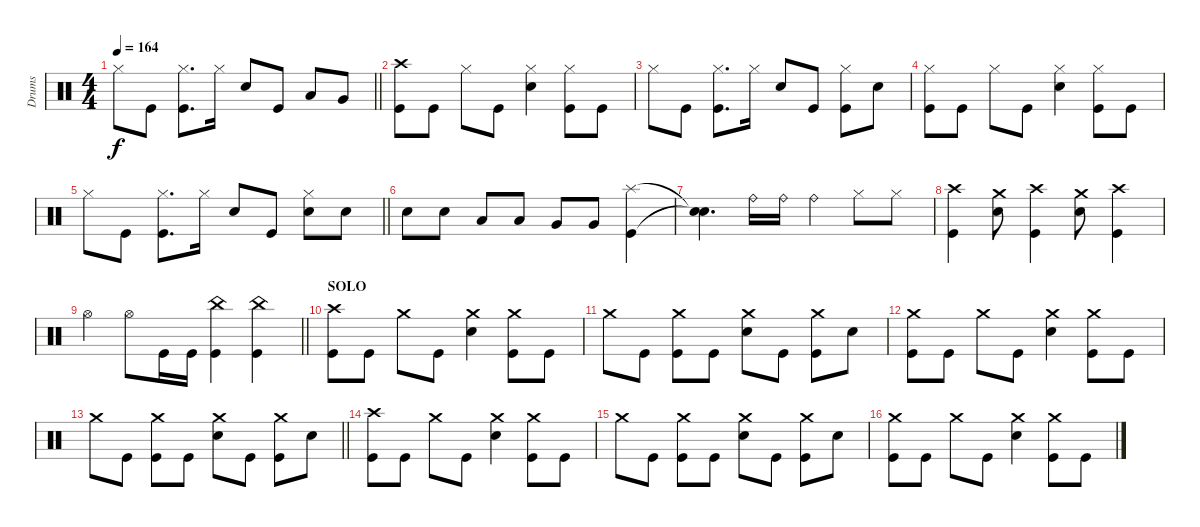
\track ("Drums" "Drums") {instrument percussion}
\staff
\articulation defaults
\ts (4 4)
\tempo 164
\clef neutral
\barLineRight lightlight
\ks c "Hi-Hat (closed)".8{dy f} "Kick (hit)".8
("Hi-Hat (closed)" "Kick (hit)").8{d} "Hi-Hat (closed)".16 "Electric Snare (hit)".8 "Kick (hit)".8 "Low Tom (hit)".8 "Very Low Tom (hit)".8 |
("Crash high (hit)" "Kick (hit)").8 "Kick (hit)".8 "Hi-Hat (closed)".8 "Kick (hit)".8 ("Hi-Hat (closed)" "Electric Snare (hit)").4 ("Hi-Hat (closed)" "Kick (hit)").8 "Kick (hit)".8 |
"Hi-Hat (closed)".8 "Kick (hit)".8 ("Hi-Hat (closed)" "Kick (hit)").8{d} "Hi-Hat (closed)".16 "Electric Snare (hit)".8 "Kick (hit)".8 ("Hi-Hat (closed)" "Kick (hit)").8 "Electric Snare (hit)".8 |
("Hi-Hat (closed)" "Kick (hit)").8 "Kick (hit)".8 "Hi-Hat (closed)".8 "Kick (hit)".8 ("Hi-Hat (closed)" "Electric Snare (hit)").4 ("Hi-Hat (closed)" "Kick (hit)").8 "Kick (hit)".8 |
\barLineRight lightlight "Hi-Hat (closed)".8 "Kick (hit)".8
("Hi-Hat (closed)" "Kick (hit)").8{d} "Hi-Hat (closed)".16 "Electric Snare (hit)".8 "Kick (hit)".8 ("Hi-Hat (closed)" "Electric Snare (hit)").8 "Electric Snare (hit)".8 |
"Electric Snare (hit)".8 "Electric Snare (hit)".8 "Low Tom (hit)".8 "Low Tom (hit)".8 "Very Low Tom (hit)".8 "Very Low Tom (hit)".8 ("Splash (hit)" "Kick (hit)").4 |
("Snare (hit)"{t} "Snare (hit)"{t}).4{d} "Ride (bell)".16 "Ride (bell)".16 "Ride (bell)".4 "Hi-Hat (closed)".8 "Hi-Hat (closed)".8 |
("Crash high (hit)" "Kick (hit)").4 ("Crash medium (hit)" "Electric Snare (hit)").8 ("Crash high (hit)" "Kick (hit)").4 ("Crash medium (hit)" "Electric Snare (hit)").8 ("Crash high (hit)" "Kick (hit)").4 |
\barLineRight lightlight "Hi-Hat (open)".4 "Hi-Hat (open)".8 "Kick (hit)".16 "Kick (hit)".16
("China (hit)" "Kick (hit)").4 ("China (hit)" "Kick (hit)").4 |
\section ("" "SOLO")
("Crash high (hit)" "Kick (hit)").8 "Kick (hit)".8 "Crash medium (hit)".8 "Kick (hit)".8 ("Crash medium (hit)" "Electric Snare (hit)").4 ("Crash medium (hit)" "Kick (hit)").8 "Kick (hit)".8 |
"Crash medium (hit)".8 "Kick (hit)".8 ("Crash medium (hit)" "Kick (hit)").8 "Kick (hit)".8 ("Crash medium (hit)" "Electric Snare (hit)").8 "Kick (hit)".8 ("Crash medium (hit)" "Kick (hit)").8 "Electric Snare (hit)".8 |
("Crash medium (hit)" "Kick (hit)").8 "Kick (hit)".8 "Crash medium (hit)".8 "Kick (hit)".8 ("Crash medium (hit)" "Electric Snare (hit)").4 ("Crash medium (hit)" "Kick (hit)").8 "Kick (hit)".8 |
\barLineRight lightlight "Crash medium (hit)".8 "Kick (hit)".8
("Crash medium (hit)" "Kick (hit)").8 "Kick (hit)".8 ("Crash medium (hit)" "Electric Snare (hit)").8 "Kick (hit)".8 ("Crash medium (hit)" "Kick (hit)").8 "Electric Snare (hit)".8 |
("Crash high (hit)" "Kick (hit)").8 "Kick (hit)".8 "Crash medium (hit)".8 "Kick (hit)".8 ("Crash medium (hit)" "Electric Snare (hit)").4 ("Crash medium (hit)" "Kick (hit)").8 "Kick (hit)".8 |
"Crash medium (hit)".8 "Kick (hit)".8 ("Crash medium (hit)" "Kick (hit)").8 "Kick (hit)".8 ("Crash medium (hit)" "Electric Snare (hit)").8 "Kick (hit)".8 ("Crash medium (hit)" "Kick (hit)").8 "Electric Snare (hit)".8 |
("Crash medium (hit)" "Kick (hit)").8 "Kick (hit)".8 "Crash medium (hit)".8 "Kick (hit)".8 ("Crash medium (hit)" "Electric Snare (hit)").4 ("Crash medium (hit)" "Kick (hit)").8 "Kick (hit)".8
